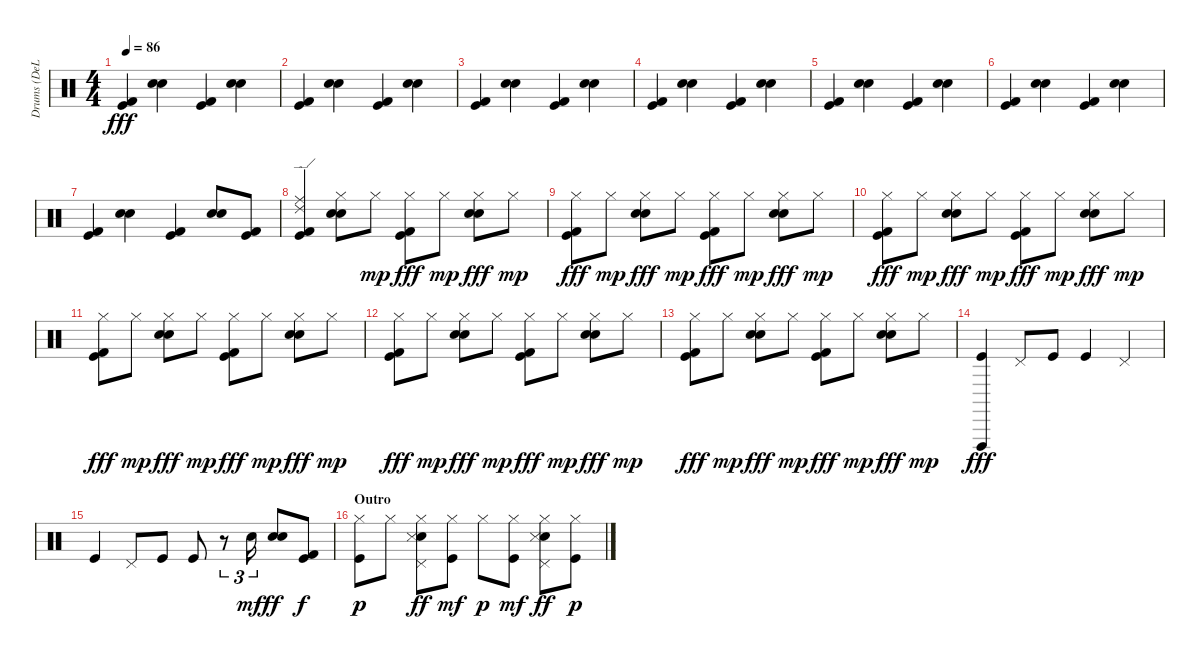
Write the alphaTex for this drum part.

\track ("Drums (DeLorenzo)" "Drums (DeL") {instrument percussion}
\staff {score}
\articulation defaults
\ts (4 4)
\tempo 86
\clef neutral
\ks c
("Kick (hit)" "Kick (hit) 2").4{dy fff} ("Snare (hit) 2" "Electric Snare (hit)").4 ("Kick (hit)" "Kick (hit) 2").4 ("Snare (hit) 2" "Electric Snare (hit)").4 |
("Kick (hit)" "Kick (hit) 2").4 ("Snare (hit) 2" "Electric Snare (hit)").4 ("Kick (hit)" "Kick (hit) 2").4 ("Snare (hit) 2" "Electric Snare (hit)").4 |
("Kick (hit)" "Kick (hit) 2").4 ("Snare (hit) 2" "Electric Snare (hit)").4 ("Kick (hit)" "Kick (hit) 2").4 ("Snare (hit) 2" "Electric Snare (hit)").4 |
("Kick (hit)" "Kick (hit) 2").4 ("Snare (hit) 2" "Electric Snare (hit)").4 ("Kick (hit)" "Kick (hit) 2").4 ("Snare (hit) 2" "Electric Snare (hit)").4 |
("Kick (hit)" "Kick (hit) 2").4 ("Snare (hit) 2" "Electric Snare (hit)").4 ("Kick (hit)" "Kick (hit) 2").4 ("Snare (hit) 2" "Electric Snare (hit)").4 |
("Kick (hit)" "Kick (hit) 2").4 ("Snare (hit) 2" "Electric Snare (hit)").4 ("Kick (hit)" "Kick (hit) 2").4 ("Snare (hit) 2" "Electric Snare (hit)").4 |
("Kick (hit)" "Kick (hit) 2").4 ("Snare (hit) 2" "Electric Snare (hit)").4 ("Kick (hit)" "Kick (hit) 2").4 ("Snare (hit) 2" "Electric Snare (hit)").8{bd 60} ("Kick (hit)" "Kick (hit) 2").8 |
("Ride (middle)" "Ride (edge) 2" "Kick (hit)" "Kick (hit) 2").4 ("Hi-Hat (closed)" "Snare (hit) 2" "Electric Snare (hit)").8 "Hi-Hat (closed)".8{dy mp} ("Hi-Hat (closed)" "Kick (hit)" "Kick (hit) 2").8{dy fff} "Hi-Hat (closed)".8{dy mp} ("Hi-Hat (closed)" "Snare (hit) 2" "Electric Snare (hit)").8{dy fff} "Hi-Hat (closed)".8{dy mp} |
("Hi-Hat (closed)" "Kick (hit)" "Kick (hit) 2").8{dy fff} "Hi-Hat (closed)".8{dy mp} ("Hi-Hat (closed)" "Snare (hit) 2" "Electric Snare (hit)").8{dy fff} "Hi-Hat (closed)".8{dy mp} ("Hi-Hat (closed)" "Kick (hit)" "Kick (hit) 2").8{dy fff} "Hi-Hat (closed)".8{dy mp} ("Hi-Hat (closed)" "Snare (hit) 2" "Electric Snare (hit)").8{dy fff} "Hi-Hat (closed)".8{dy mp} |
("Hi-Hat (closed)" "Kick (hit)" "Kick (hit) 2").8{dy fff} "Hi-Hat (closed)".8{dy mp} ("Hi-Hat (closed)" "Snare (hit) 2" "Electric Snare (hit)").8{dy fff} "Hi-Hat (closed)".8{dy mp} ("Hi-Hat (closed)" "Kick (hit)" "Kick (hit) 2").8{dy fff} "Hi-Hat (closed)".8{dy mp} ("Hi-Hat (closed)" "Snare (hit) 2" "Electric Snare (hit)").8{dy fff} "Hi-Hat (closed)".8{dy mp} |
("Hi-Hat (closed)" "Kick (hit)" "Kick (hit) 2").8{dy fff} "Hi-Hat (closed)".8{dy mp} ("Hi-Hat (closed)" "Snare (hit) 2" "Electric Snare (hit)").8{dy fff} "Hi-Hat (closed)".8{dy mp} ("Hi-Hat (closed)" "Kick (hit)" "Kick (hit) 2").8{dy fff} "Hi-Hat (closed)".8{dy mp} ("Hi-Hat (closed)" "Snare (hit) 2" "Electric Snare (hit)").8{dy fff} "Hi-Hat (closed)".8{dy mp} |
("Hi-Hat (closed)" "Kick (hit)" "Kick (hit) 2").8{dy fff} "Hi-Hat (closed)".8{dy mp} ("Hi-Hat (closed)" "Snare (hit) 2" "Electric Snare (hit)").8{dy fff} "Hi-Hat (closed)".8{dy mp} ("Hi-Hat (closed)" "Kick (hit)" "Kick (hit) 2").8{dy fff} "Hi-Hat (closed)".8{dy mp} ("Hi-Hat (closed)" "Snare (hit) 2" "Electric Snare (hit)").8{dy fff} "Hi-Hat (closed)".8{dy mp} |
("Hi-Hat (closed)" "Kick (hit)" "Kick (hit) 2").8{dy fff} "Hi-Hat (closed)".8{dy mp} ("Hi-Hat (closed)" "Snare (hit) 2" "Electric Snare (hit)").8{dy fff} "Hi-Hat (closed)".8{dy mp} ("Hi-Hat (closed)" "Kick (hit)" "Kick (hit) 2").8{dy fff} "Hi-Hat (closed)".8{dy mp} ("Hi-Hat (closed)" "Snare (hit) 2" "Electric Snare (hit)").8{dy fff} "Hi-Hat (closed)".8{dy mp} |
("Vibraslap (hit)" "Kick (hit)").4{dy fff} "Pedal Hi-Hat (hit)".8 "Kick (hit)".8 "Kick (hit)".4 "Pedal Hi-Hat (hit)".4 |
"Kick (hit)".4 "Pedal Hi-Hat (hit)".8 "Kick (hit)".8 "Kick (hit)".8 r.8{tu (3 2)} "Snare (hit) 2".16{tu (3 2) dy mf} ("Snare (hit) 2" "Electric Snare (hit)").8{dy ff} ("Kick (hit)" "Kick (hit) 2").8{dy f} |
\section ("" "Outro")
("Hi-Hat (closed)" "Kick (hit)").8{dy p} "Hi-Hat (closed)".8 ("Hi-Hat (closed)" "Pedal Hi-Hat (hit)" "Electric Snare (hit)" "Snare (side stick) 3").8{dy ff} ("Hi-Hat (closed)" "Kick (hit)").8{dy mf} "Hi-Hat (closed)".8{dy p} ("Hi-Hat (closed)" "Kick (hit)").8{dy mf} ("Hi-Hat (closed)" "Pedal Hi-Hat (hit)" "Electric Snare (hit)" "Snare (side stick) 3").8{dy ff} ("Hi-Hat (closed)" "Kick (hit)").8{dy p}
